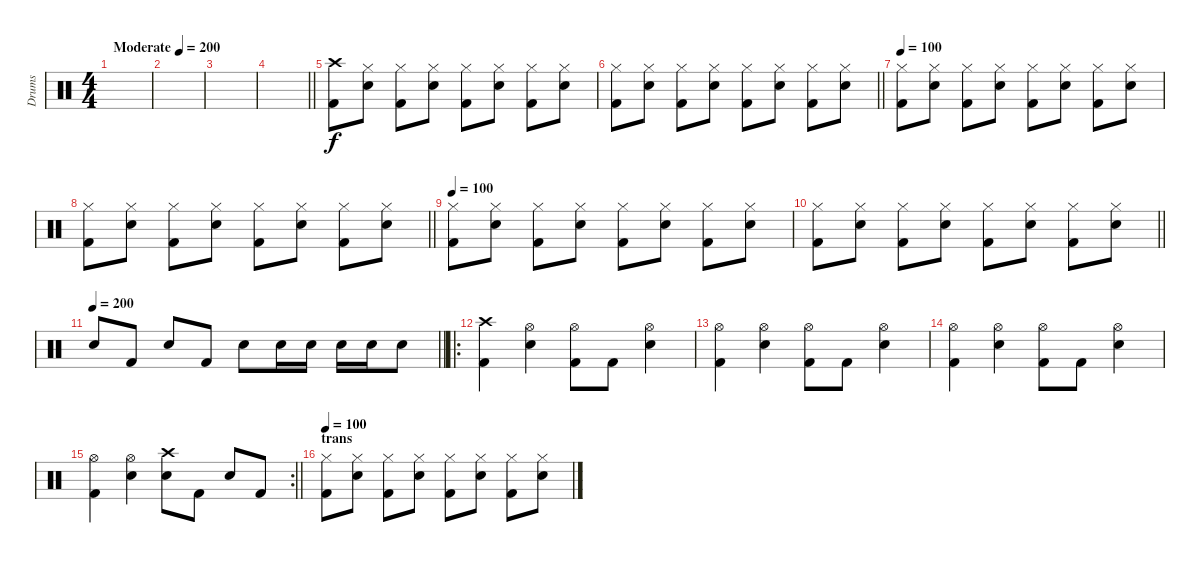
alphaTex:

\track ("Drums" "Drums") {instrument percussion}
\staff {score}
\articulation defaults
\ts (4 4)
\tempo (200 "Moderate")
\tempo 100
\tempo (200 "Moderate")
\clef neutral
\ks c
|
|
|
\barLineRight lightlight
|
("Crash high (hit)" "Kick (hit) 2").8 ("Hi-Hat (closed)" "Electric Snare (hit)").8 ("Hi-Hat (closed)" "Kick (hit) 2").8 ("Hi-Hat (closed)" "Electric Snare (hit)").8 ("Hi-Hat (closed)" "Kick (hit) 2").8 ("Hi-Hat (closed)" "Electric Snare (hit)").8 ("Hi-Hat (closed)" "Kick (hit) 2").8 ("Hi-Hat (closed)" "Electric Snare (hit)").8 |
\barLineRight lightlight
("Hi-Hat (closed)" "Kick (hit) 2").8 ("Hi-Hat (closed)" "Electric Snare (hit)").8 ("Hi-Hat (closed)" "Kick (hit) 2").8 ("Hi-Hat (closed)" "Electric Snare (hit)").8 ("Hi-Hat (closed)" "Kick (hit) 2").8 ("Hi-Hat (closed)" "Electric Snare (hit)").8 ("Hi-Hat (closed)" "Kick (hit) 2").8 ("Hi-Hat (closed)" "Electric Snare (hit)").8 |
\tempo 100
("Hi-Hat (closed)" "Kick (hit) 2").8 ("Hi-Hat (closed)" "Electric Snare (hit)").8 ("Hi-Hat (closed)" "Kick (hit) 2").8 ("Hi-Hat (closed)" "Electric Snare (hit)").8 ("Hi-Hat (closed)" "Kick (hit) 2").8 ("Hi-Hat (closed)" "Electric Snare (hit)").8 ("Hi-Hat (closed)" "Kick (hit) 2").8 ("Hi-Hat (closed)" "Electric Snare (hit)").8 |
\barLineRight lightlight
("Hi-Hat (closed)" "Kick (hit) 2").8 ("Hi-Hat (closed)" "Electric Snare (hit)").8 ("Hi-Hat (closed)" "Kick (hit) 2").8 ("Hi-Hat (closed)" "Electric Snare (hit)").8 ("Hi-Hat (closed)" "Kick (hit) 2").8 ("Hi-Hat (closed)" "Electric Snare (hit)").8 ("Hi-Hat (closed)" "Kick (hit) 2").8 ("Hi-Hat (closed)" "Electric Snare (hit)").8 |
\tempo 100
("Hi-Hat (closed)" "Kick (hit) 2").8 ("Hi-Hat (closed)" "Electric Snare (hit)").8 ("Hi-Hat (closed)" "Kick (hit) 2").8 ("Hi-Hat (closed)" "Electric Snare (hit)").8 ("Hi-Hat (closed)" "Kick (hit) 2").8 ("Hi-Hat (closed)" "Electric Snare (hit)").8 ("Hi-Hat (closed)" "Kick (hit) 2").8 ("Hi-Hat (closed)" "Electric Snare (hit)").8 |
\barLineRight lightlight
("Hi-Hat (closed)" "Kick (hit) 2").8 ("Hi-Hat (closed)" "Electric Snare (hit)").8 ("Hi-Hat (closed)" "Kick (hit) 2").8 ("Hi-Hat (closed)" "Electric Snare (hit)").8 ("Hi-Hat (closed)" "Kick (hit) 2").8 ("Hi-Hat (closed)" "Electric Snare (hit)").8 ("Hi-Hat (closed)" "Kick (hit) 2").8 ("Hi-Hat (closed)" "Electric Snare (hit)").8 |
\tempo 200
\barLineRight lightlight "Electric Snare (hit)".8 "Kick (hit) 2".8 "Electric Snare (hit)".8 "Kick (hit) 2".8 "Electric Snare (hit)".8 "Electric Snare (hit)".16 "Electric Snare (hit)".16 "Electric Snare (hit)".16 "Electric Snare (hit)".16 "Electric Snare (hit)".8
|
\ro
\section ("" "")
("Crash high (hit)" "Kick (hit) 2").4 ("Hi-Hat (open)" "Electric Snare (hit)").4 ("Hi-Hat (open)" "Kick (hit) 2").8 "Kick (hit) 2".8 ("Hi-Hat (open)" "Electric Snare (hit)").4 |
("Hi-Hat (open)" "Kick (hit) 2").4 ("Hi-Hat (open)" "Electric Snare (hit)").4 ("Hi-Hat (open)" "Kick (hit) 2").8 "Kick (hit) 2".8 ("Hi-Hat (open)" "Electric Snare (hit)").4 |
("Hi-Hat (open)" "Kick (hit) 2").4 ("Hi-Hat (open)" "Electric Snare (hit)").4 ("Hi-Hat (open)" "Kick (hit) 2").8 "Kick (hit) 2".8 ("Hi-Hat (open)" "Electric Snare (hit)").4 |
\rc 2
\barLineRight lightlight
("Hi-Hat (open)" "Kick (hit) 2").4 ("Hi-Hat (open)" "Electric Snare (hit)").4 ("Crash high (hit)" "Electric Snare (hit)").8 "Kick (hit) 2".8 "Electric Snare (hit)".8 "Kick (hit) 2".8 |
\section ("" "trans")
\tempo 100
("Hi-Hat (closed)" "Kick (hit) 2").8 ("Hi-Hat (closed)" "Electric Snare (hit)").8 ("Hi-Hat (closed)" "Kick (hit) 2").8 ("Hi-Hat (closed)" "Electric Snare (hit)").8 ("Hi-Hat (closed)" "Kick (hit) 2").8 ("Hi-Hat (closed)" "Electric Snare (hit)").8 ("Hi-Hat (closed)" "Kick (hit) 2").8 ("Hi-Hat (closed)" "Electric Snare (hit)").8
